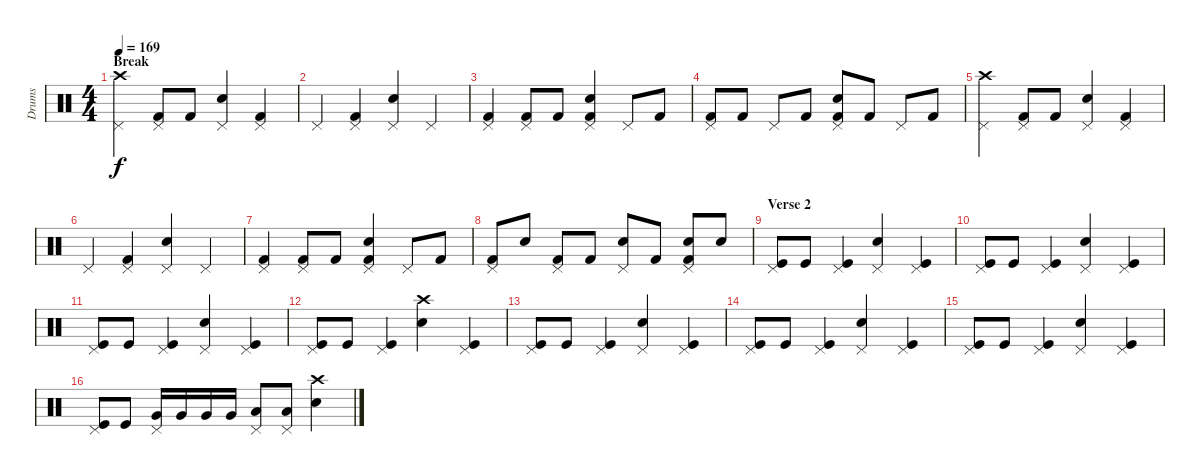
\track ("Drums" "Drums") {instrument percussion}
\staff {score}
\articulation defaults
\ts (4 4)
\section ("" "Break")
\tempo 169
\clef neutral
\ks c
("Crash high (hit)" "Pedal Hi-Hat (hit)").4{dy f} ("Pedal Hi-Hat (hit)" "Kick (hit) 2").8 "Kick (hit) 2".8 ("Pedal Hi-Hat (hit)" "Snare (hit) 2").4 ("Pedal Hi-Hat (hit)" "Kick (hit) 2").4 |
"Pedal Hi-Hat (hit)".4 ("Pedal Hi-Hat (hit)" "Kick (hit) 2").4 ("Pedal Hi-Hat (hit)" "Snare (hit) 2").4 "Pedal Hi-Hat (hit)".4 |
("Pedal Hi-Hat (hit)" "Kick (hit) 2").4 ("Pedal Hi-Hat (hit)" "Kick (hit) 2").8 "Kick (hit) 2".8 ("Pedal Hi-Hat (hit)" "Snare (hit) 2" "Kick (hit) 2").4 "Pedal Hi-Hat (hit)".8 "Kick (hit) 2".8 |
("Pedal Hi-Hat (hit)" "Kick (hit) 2").8 "Kick (hit) 2".8 "Pedal Hi-Hat (hit)".8 "Kick (hit) 2".8 ("Pedal Hi-Hat (hit)" "Snare (hit) 2" "Kick (hit) 2").8 "Kick (hit) 2".8 "Pedal Hi-Hat (hit)".8 "Kick (hit) 2".8 |
("Crash high (hit)" "Pedal Hi-Hat (hit)").4 ("Pedal Hi-Hat (hit)" "Kick (hit) 2").8 "Kick (hit) 2".8 ("Pedal Hi-Hat (hit)" "Snare (hit) 2").4 ("Pedal Hi-Hat (hit)" "Kick (hit) 2").4 |
"Pedal Hi-Hat (hit)".4 ("Pedal Hi-Hat (hit)" "Kick (hit) 2").4 ("Pedal Hi-Hat (hit)" "Snare (hit) 2").4 "Pedal Hi-Hat (hit)".4 |
("Pedal Hi-Hat (hit)" "Kick (hit) 2").4 ("Pedal Hi-Hat (hit)" "Kick (hit) 2").8 "Kick (hit) 2".8 ("Pedal Hi-Hat (hit)" "Snare (hit) 2" "Kick (hit) 2").4 "Pedal Hi-Hat (hit)".8 "Kick (hit) 2".8 |
("Pedal Hi-Hat (hit)" "Kick (hit) 2").8 "Snare (hit) 2".8 ("Pedal Hi-Hat (hit)" "Kick (hit) 2").8 "Kick (hit) 2".8 ("Pedal Hi-Hat (hit)" "Snare (hit) 2").8 "Kick (hit) 2".8 ("Pedal Hi-Hat (hit)" "Snare (hit) 2" "Kick (hit) 2").8 "Snare (hit) 2".8 |
\section ("" "Verse 2")
("Pedal Hi-Hat (hit)" "Kick (hit)").8 "Kick (hit)".8 ("Pedal Hi-Hat (hit)" "Kick (hit)").4 ("Pedal Hi-Hat (hit)" "Snare (hit) 2").4 ("Pedal Hi-Hat (hit)" "Kick (hit)").4 |
("Pedal Hi-Hat (hit)" "Kick (hit)").8 "Kick (hit)".8 ("Pedal Hi-Hat (hit)" "Kick (hit)").4 ("Pedal Hi-Hat (hit)" "Snare (hit) 2").4 ("Pedal Hi-Hat (hit)" "Kick (hit)").4 |
("Pedal Hi-Hat (hit)" "Kick (hit)").8 "Kick (hit)".8 ("Pedal Hi-Hat (hit)" "Kick (hit)").4 ("Pedal Hi-Hat (hit)" "Snare (hit) 2").4 ("Pedal Hi-Hat (hit)" "Kick (hit)").4 |
("Pedal Hi-Hat (hit)" "Kick (hit)").8 "Kick (hit)".8 ("Pedal Hi-Hat (hit)" "Kick (hit)").4 ("Crash high (hit)" "Snare (hit) 2").4 ("Pedal Hi-Hat (hit)" "Kick (hit)").4 |
("Pedal Hi-Hat (hit)" "Kick (hit)").8 "Kick (hit)".8 ("Pedal Hi-Hat (hit)" "Kick (hit)").4 ("Pedal Hi-Hat (hit)" "Snare (hit) 2").4 ("Pedal Hi-Hat (hit)" "Kick (hit)").4 |
("Pedal Hi-Hat (hit)" "Kick (hit)").8 "Kick (hit)".8 ("Pedal Hi-Hat (hit)" "Kick (hit)").4 ("Pedal Hi-Hat (hit)" "Snare (hit) 2").4 ("Pedal Hi-Hat (hit)" "Kick (hit)").4 |
("Pedal Hi-Hat (hit)" "Kick (hit)").8 "Kick (hit)".8 ("Pedal Hi-Hat (hit)" "Kick (hit)").4 ("Pedal Hi-Hat (hit)" "Snare (hit) 2").4 ("Pedal Hi-Hat (hit)" "Kick (hit)").4 |
("Pedal Hi-Hat (hit)" "Kick (hit)").8 "Kick (hit)".8 ("Pedal Hi-Hat (hit)" "Very Low Tom (hit)").16 "Very Low Tom (hit)".16 "Very Low Tom (hit)".16 "Very Low Tom (hit)".16 ("Pedal Hi-Hat (hit)" "Low Floor Tom (hit)").8 ("Pedal Hi-Hat (hit)" "Low Floor Tom (hit)").8 ("Crash high (hit)" "Snare (hit) 2").4
